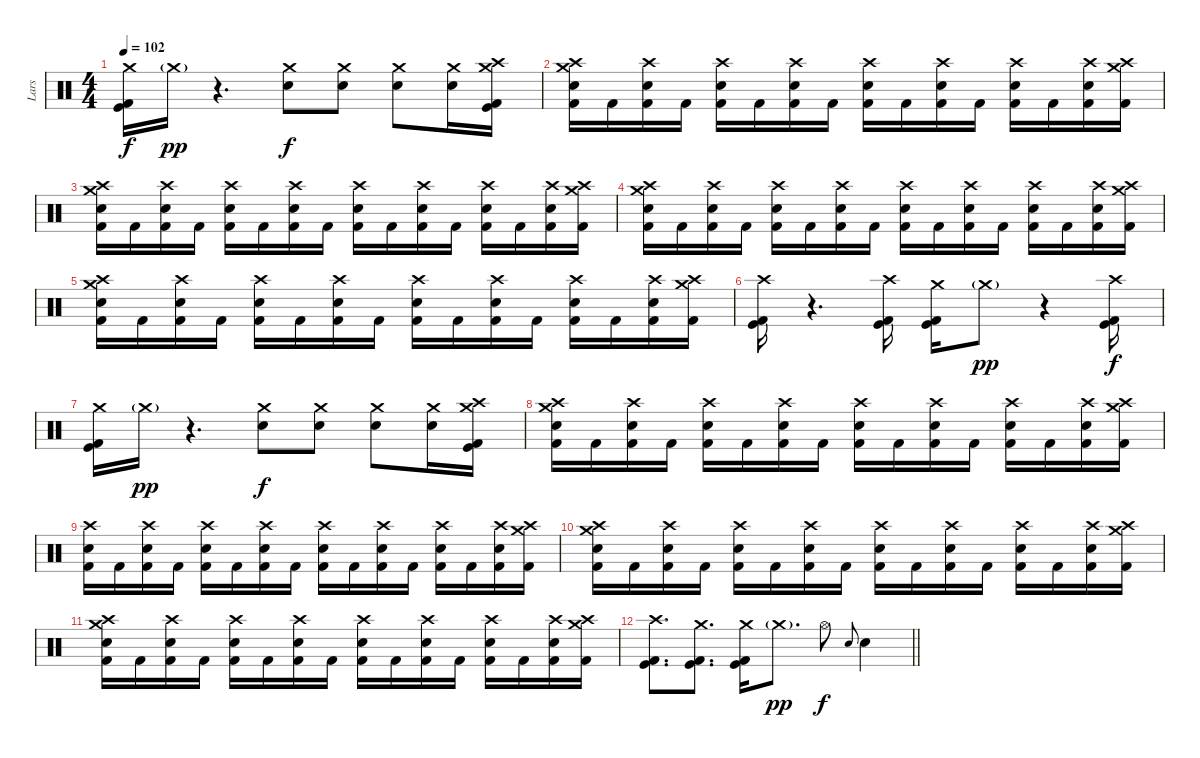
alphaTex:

\track ("Lars" "Lars") {instrument percussion}
\staff {score}
\articulation defaults
\ts (4 4)
\tempo 102
\clef neutral
\ks c
("Crash medium (hit)" "Kick (hit)" "Kick (hit) 2").16{dy f} "Crash medium (hit)"{g}.16{dy pp} r.4{d} ("Crash medium (hit)" "Electric Snare (hit)").8{dy f} ("Crash medium (hit)" "Electric Snare (hit)").8 ("Crash medium (hit)" "Electric Snare (hit)").8 ("Crash medium (hit)" "Electric Snare (hit)").16 ("Crash high (hit)" "Crash medium (hit)" "Kick (hit)" "Kick (hit) 2").16 |
("Crash high (hit)" "Crash medium (hit)" "Electric Snare (hit)" "Kick (hit) 2").16 "Kick (hit) 2".16 ("Crash high (hit)" "Electric Snare (hit)" "Kick (hit) 2").16 "Kick (hit) 2".16 ("Crash high (hit)" "Electric Snare (hit)" "Kick (hit) 2").16 "Kick (hit) 2".16 ("Crash high (hit)" "Electric Snare (hit)" "Kick (hit) 2").16 "Kick (hit) 2".16 ("Crash high (hit)" "Electric Snare (hit)" "Kick (hit) 2").16 "Kick (hit) 2".16 ("Crash high (hit)" "Electric Snare (hit)" "Kick (hit) 2").16 "Kick (hit) 2".16 ("Crash high (hit)" "Electric Snare (hit)" "Kick (hit) 2").16 "Kick (hit) 2".16 ("Crash high (hit)" "Electric Snare (hit)" "Kick (hit) 2").16 ("Crash high (hit)" "Crash medium (hit)" "Kick (hit) 2").16 |
("Crash high (hit)" "Crash medium (hit)" "Electric Snare (hit)" "Kick (hit) 2").16 "Kick (hit) 2".16 ("Crash high (hit)" "Electric Snare (hit)" "Kick (hit) 2").16 "Kick (hit) 2".16 ("Crash high (hit)" "Electric Snare (hit)" "Kick (hit) 2").16 "Kick (hit) 2".16 ("Crash high (hit)" "Electric Snare (hit)" "Kick (hit) 2").16 "Kick (hit) 2".16 ("Crash high (hit)" "Electric Snare (hit)" "Kick (hit) 2").16 "Kick (hit) 2".16 ("Crash high (hit)" "Electric Snare (hit)" "Kick (hit) 2").16 "Kick (hit) 2".16 ("Crash high (hit)" "Electric Snare (hit)" "Kick (hit) 2").16 "Kick (hit) 2".16 ("Crash high (hit)" "Electric Snare (hit)" "Kick (hit) 2").16 ("Crash high (hit)" "Crash medium (hit)" "Kick (hit) 2").16 |
("Crash high (hit)" "Crash medium (hit)" "Electric Snare (hit)" "Kick (hit) 2").16 "Kick (hit) 2".16 ("Crash high (hit)" "Electric Snare (hit)" "Kick (hit) 2").16 "Kick (hit) 2".16 ("Crash high (hit)" "Electric Snare (hit)" "Kick (hit) 2").16 "Kick (hit) 2".16 ("Crash high (hit)" "Electric Snare (hit)" "Kick (hit) 2").16 "Kick (hit) 2".16 ("Crash high (hit)" "Electric Snare (hit)" "Kick (hit) 2").16 "Kick (hit) 2".16 ("Crash high (hit)" "Electric Snare (hit)" "Kick (hit) 2").16 "Kick (hit) 2".16 ("Crash high (hit)" "Electric Snare (hit)" "Kick (hit) 2").16 "Kick (hit) 2".16 ("Crash high (hit)" "Electric Snare (hit)" "Kick (hit) 2").16 ("Crash high (hit)" "Crash medium (hit)" "Kick (hit) 2").16 |
("Crash high (hit)" "Crash medium (hit)" "Electric Snare (hit)" "Kick (hit) 2").16 "Kick (hit) 2".16 ("Crash high (hit)" "Electric Snare (hit)" "Kick (hit) 2").16 "Kick (hit) 2".16 ("Crash high (hit)" "Electric Snare (hit)" "Kick (hit) 2").16 "Kick (hit) 2".16 ("Crash high (hit)" "Electric Snare (hit)" "Kick (hit) 2").16 "Kick (hit) 2".16 ("Crash high (hit)" "Electric Snare (hit)" "Kick (hit) 2").16 "Kick (hit) 2".16 ("Crash high (hit)" "Electric Snare (hit)" "Kick (hit) 2").16 "Kick (hit) 2".16 ("Crash high (hit)" "Electric Snare (hit)" "Kick (hit) 2").16 "Kick (hit) 2".16 ("Crash high (hit)" "Electric Snare (hit)" "Kick (hit) 2").16 ("Crash high (hit)" "Crash medium (hit)" "Kick (hit) 2").16 |
("Crash high (hit)" "Kick (hit)" "Kick (hit) 2").16 r.4{d} ("Crash high (hit)" "Kick (hit)" "Kick (hit) 2").16 ("Crash medium (hit)" "Kick (hit)" "Kick (hit) 2").16 "Crash medium (hit)"{g}.8{dy pp} r.4 ("Crash high (hit)" "Kick (hit)" "Kick (hit) 2").16{dy f} |
("Crash medium (hit)" "Kick (hit)" "Kick (hit) 2").16 "Crash medium (hit)"{g}.16{dy pp} r.4{d} ("Crash medium (hit)" "Electric Snare (hit)").8{dy f} ("Crash medium (hit)" "Electric Snare (hit)").8 ("Crash medium (hit)" "Electric Snare (hit)").8 ("Crash medium (hit)" "Electric Snare (hit)").16 ("Crash high (hit)" "Crash medium (hit)" "Kick (hit)" "Kick (hit) 2").16 |
("Crash high (hit)" "Crash medium (hit)" "Electric Snare (hit)" "Kick (hit) 2").16 "Kick (hit) 2".16 ("Crash high (hit)" "Electric Snare (hit)" "Kick (hit) 2").16 "Kick (hit) 2".16 ("Crash high (hit)" "Electric Snare (hit)" "Kick (hit) 2").16 "Kick (hit) 2".16 ("Crash high (hit)" "Electric Snare (hit)" "Kick (hit) 2").16 "Kick (hit) 2".16 ("Crash high (hit)" "Electric Snare (hit)" "Kick (hit) 2").16 "Kick (hit) 2".16 ("Crash high (hit)" "Electric Snare (hit)" "Kick (hit) 2").16 "Kick (hit) 2".16 ("Crash high (hit)" "Electric Snare (hit)" "Kick (hit) 2").16 "Kick (hit) 2".16 ("Crash high (hit)" "Electric Snare (hit)" "Kick (hit) 2").16 ("Crash high (hit)" "Crash medium (hit)" "Kick (hit) 2").16 |
("Crash high (hit)" "Electric Snare (hit)" "Kick (hit) 2").16 "Kick (hit) 2".16 ("Crash high (hit)" "Electric Snare (hit)" "Kick (hit) 2").16 "Kick (hit) 2".16 ("Crash high (hit)" "Electric Snare (hit)" "Kick (hit) 2").16 "Kick (hit) 2".16 ("Crash high (hit)" "Electric Snare (hit)" "Kick (hit) 2").16 "Kick (hit) 2".16 ("Crash high (hit)" "Electric Snare (hit)" "Kick (hit) 2").16 "Kick (hit) 2".16 ("Crash high (hit)" "Electric Snare (hit)" "Kick (hit) 2").16 "Kick (hit) 2".16 ("Crash high (hit)" "Electric Snare (hit)" "Kick (hit) 2").16 "Kick (hit) 2".16 ("Crash high (hit)" "Electric Snare (hit)" "Kick (hit) 2").16 ("Crash high (hit)" "Crash medium (hit)" "Kick (hit) 2").16 |
("Crash high (hit)" "Crash medium (hit)" "Electric Snare (hit)" "Kick (hit) 2").16 "Kick (hit) 2".16 ("Crash high (hit)" "Electric Snare (hit)" "Kick (hit) 2").16 "Kick (hit) 2".16 ("Crash high (hit)" "Electric Snare (hit)" "Kick (hit) 2").16 "Kick (hit) 2".16 ("Crash high (hit)" "Electric Snare (hit)" "Kick (hit) 2").16 "Kick (hit) 2".16 ("Crash high (hit)" "Electric Snare (hit)" "Kick (hit) 2").16 "Kick (hit) 2".16 ("Crash high (hit)" "Electric Snare (hit)" "Kick (hit) 2").16 "Kick (hit) 2".16 ("Crash high (hit)" "Electric Snare (hit)" "Kick (hit) 2").16 "Kick (hit) 2".16 ("Crash high (hit)" "Electric Snare (hit)" "Kick (hit) 2").16 ("Crash high (hit)" "Crash medium (hit)" "Kick (hit) 2").16 |
("Crash high (hit)" "Crash medium (hit)" "Electric Snare (hit)" "Kick (hit) 2").16 "Kick (hit) 2".16 ("Crash high (hit)" "Electric Snare (hit)" "Kick (hit) 2").16 "Kick (hit) 2".16 ("Crash high (hit)" "Electric Snare (hit)" "Kick (hit) 2").16 "Kick (hit) 2".16 ("Crash high (hit)" "Electric Snare (hit)" "Kick (hit) 2").16 "Kick (hit) 2".16 ("Crash high (hit)" "Electric Snare (hit)" "Kick (hit) 2").16 "Kick (hit) 2".16 ("Crash high (hit)" "Electric Snare (hit)" "Kick (hit) 2").16 "Kick (hit) 2".16 ("Crash high (hit)" "Electric Snare (hit)" "Kick (hit) 2").16 "Kick (hit) 2".16 ("Crash high (hit)" "Electric Snare (hit)" "Kick (hit) 2").16 ("Crash high (hit)" "Crash medium (hit)" "Kick (hit) 2").16 |
\barLineRight lightlight
("Crash high (hit)" "Kick (hit)" "Kick (hit) 2").8{d} ("Crash medium (hit)" "Kick (hit)" "Kick (hit) 2").8{d} ("Crash medium (hit)" "Kick (hit)" "Kick (hit) 2").16 "Crash medium (hit)"{g}.8{d dy pp} "Hi-Hat (open)".8{dy f} "Electric Snare (hit)".8{gr onbeat} "Electric Snare (hit)".4
